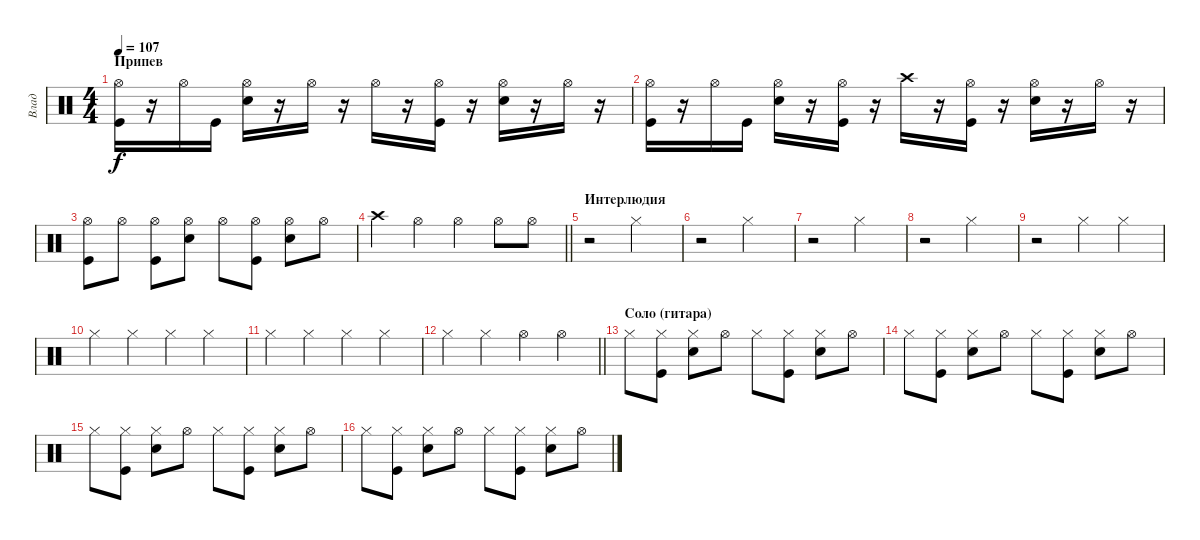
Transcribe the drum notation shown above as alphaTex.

\track ("Влад" "Влад") {instrument percussion}
\staff {score}
\articulation defaults
\ts (4 4)
\section ("" "Припев")
\tempo 107
\clef neutral
\ks c
("Hi-Hat (open)" "Kick (hit)").16{dy f} r.16 "Hi-Hat (open)".16 "Kick (hit)".16 ("Hi-Hat (open)" "Snare (hit) 2").16 r.16 "Hi-Hat (open)".16 r.16 "Hi-Hat (open)".16 r.16 ("Hi-Hat (open)" "Kick (hit)").16 r.16 ("Hi-Hat (open)" "Snare (hit) 2").16 r.16 "Hi-Hat (open)".16 r.16 |
("Hi-Hat (open)" "Kick (hit)").16 r.16 "Hi-Hat (open)".16 "Kick (hit)".16 ("Hi-Hat (open)" "Snare (hit) 2").16 r.16 ("Hi-Hat (open)" "Kick (hit)").16 r.16 "Crash high (hit)".16 r.16 ("Hi-Hat (open)" "Kick (hit)").16 r.16 ("Hi-Hat (open)" "Snare (hit) 2").16 r.16 "Hi-Hat (open)".16 r.16 |
("Hi-Hat (open)" "Kick (hit)").8 "Hi-Hat (open)".8 ("Hi-Hat (open)" "Kick (hit)").8 ("Hi-Hat (open)" "Snare (hit) 2").8 "Hi-Hat (open)".8 ("Hi-Hat (open)" "Kick (hit)").8 ("Hi-Hat (open)" "Snare (hit) 2").8 "Hi-Hat (open)".8 |
\barLineRight lightlight "Crash high (hit)".4 "Hi-Hat (open)".4 "Hi-Hat (open)".4 "Hi-Hat (open)".8 "Hi-Hat (open)".8
|
\section ("" "Интерлюдия")
r.2 "Hi-Hat (closed)".2 |
r.2 "Hi-Hat (closed)".2 |
r.2 "Hi-Hat (closed)".2 |
r.2 "Hi-Hat (closed)".2 |
r.2 "Hi-Hat (closed)".4 "Hi-Hat (closed)".4 |
"Hi-Hat (closed)".4 "Hi-Hat (closed)".4 "Hi-Hat (closed)".4 "Hi-Hat (closed)".4 |
"Hi-Hat (closed)".4 "Hi-Hat (closed)".4 "Hi-Hat (closed)".4 "Hi-Hat (closed)".4 |
\barLineRight lightlight "Hi-Hat (closed)".4 "Hi-Hat (closed)".4 "Hi-Hat (open)".4 "Hi-Hat (open)".4
|
\section ("" "Соло (гитара)")
"Hi-Hat (closed)".8 ("Hi-Hat (closed)" "Kick (hit)").8 ("Hi-Hat (closed)" "Snare (hit) 2").8 "Hi-Hat (open)".8 "Hi-Hat (closed)".8 ("Hi-Hat (closed)" "Kick (hit)").8 ("Hi-Hat (closed)" "Snare (hit) 2").8 "Hi-Hat (open)".8 |
"Hi-Hat (closed)".8 ("Hi-Hat (closed)" "Kick (hit)").8 ("Hi-Hat (closed)" "Snare (hit) 2").8 "Hi-Hat (open)".8 "Hi-Hat (closed)".8 ("Hi-Hat (closed)" "Kick (hit)").8 ("Hi-Hat (closed)" "Snare (hit) 2").8 "Hi-Hat (open)".8 |
"Hi-Hat (closed)".8 ("Hi-Hat (closed)" "Kick (hit)").8 ("Hi-Hat (closed)" "Snare (hit) 2").8 "Hi-Hat (open)".8 "Hi-Hat (closed)".8 ("Hi-Hat (closed)" "Kick (hit)").8 ("Hi-Hat (closed)" "Snare (hit) 2").8 "Hi-Hat (open)".8 |
"Hi-Hat (closed)".8 ("Hi-Hat (closed)" "Kick (hit)").8 ("Hi-Hat (closed)" "Snare (hit) 2").8 "Hi-Hat (open)".8 "Hi-Hat (closed)".8 ("Hi-Hat (closed)" "Kick (hit)").8 ("Hi-Hat (closed)" "Snare (hit) 2").8 "Hi-Hat (open)".8
